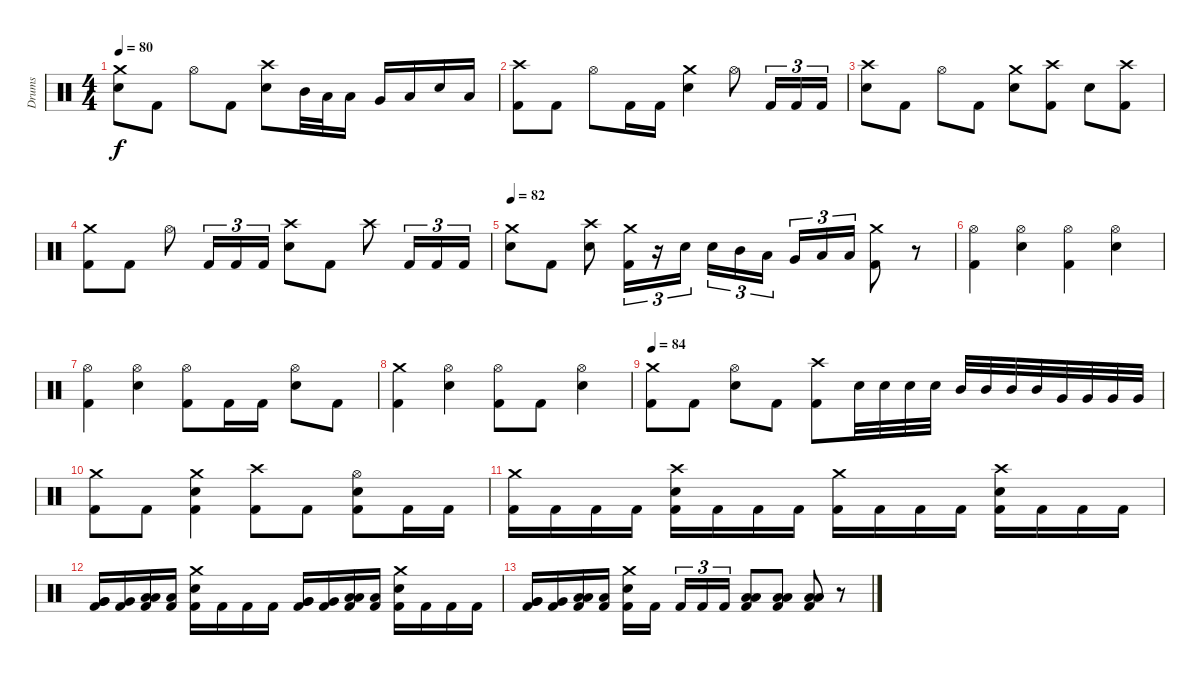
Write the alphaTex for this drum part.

\track ("Drums" "Drums") {instrument percussion}
\staff {score}
\articulation defaults
\ts (4 4)
\tempo 80
\clef neutral
\ks c
("Crash medium (hit)" "Electric Snare (hit)").8{dy f} "Kick (hit) 2".8 "Hi-Hat (open)".8 "Kick (hit) 2".8 ("Crash high (hit)" "Electric Snare (hit)").8 "Mid Tom (hit)".32 "Low Tom (hit)".32 "Low Tom (hit)".16 "Very Low Tom (hit)".16 "Low Floor Tom (hit)".16 "Electric Snare (hit)".16 "Low Floor Tom (hit)".16 |
("Crash high (hit)" "Kick (hit) 2").8 "Kick (hit) 2".8 "Hi-Hat (open)".8 "Kick (hit) 2".16 "Kick (hit) 2".16 ("Crash medium (hit)" "Electric Snare (hit)").4 "Hi-Hat (open)".8 "Kick (hit) 2".16{tu (3 2)} "Kick (hit) 2".16{tu (3 2)} "Kick (hit) 2".16{tu (3 2)} |
("Crash high (hit)" "Electric Snare (hit)").8 "Kick (hit) 2".8 "Hi-Hat (open)".8 "Kick (hit) 2".8 ("Crash medium (hit)" "Electric Snare (hit)").8 ("Crash high (hit)" "Kick (hit) 2").8 "Electric Snare (hit)".8 ("Crash high (hit)" "Kick (hit) 2").8 |
("Crash medium (hit)" "Kick (hit) 2").8 "Kick (hit) 2".8 "Hi-Hat (open)".8 "Kick (hit) 2".16{tu (3 2)} "Kick (hit) 2".16{tu (3 2)} "Kick (hit) 2".16{tu (3 2)} ("Crash high (hit)" "Electric Snare (hit)").8 "Kick (hit) 2".8 "Crash high (hit)".8 "Kick (hit) 2".16{tu (3 2)} "Kick (hit) 2".16{tu (3 2)} "Kick (hit) 2".16{tu (3 2)} |
\tempo 82
("Crash medium (hit)" "Electric Snare (hit)").8 "Kick (hit) 2".8 ("Crash high (hit)" "Electric Snare (hit)").8 ("Crash medium (hit)" "Kick (hit) 2").16{tu (3 2)} r.16{tu (3 2)} "Electric Snare (hit)".16{tu (3 2)} "Electric Snare (hit)".16{tu (3 2)} "Mid Tom (hit)".16{tu (3 2)} "Low Tom (hit)".16{tu (3 2) beam splitsecondary} "Very Low Tom (hit)".16{tu (3 2)} "Low Floor Tom (hit)".16{tu (3 2)} "Low Floor Tom (hit)".16{tu (3 2)} ("Crash medium (hit)" "Kick (hit) 2").8 r.8 |
("Hi-Hat (open)" "Kick (hit) 2").4 ("Hi-Hat (open)" "Electric Snare (hit)").4 ("Hi-Hat (open)" "Kick (hit) 2").4 ("Hi-Hat (open)" "Electric Snare (hit)").4 |
("Hi-Hat (open)" "Kick (hit) 2").4 ("Hi-Hat (open)" "Electric Snare (hit)").4 ("Hi-Hat (open)" "Kick (hit) 2").8 "Kick (hit) 2".16 "Kick (hit) 2".16 ("Hi-Hat (open)" "Electric Snare (hit)").8 "Kick (hit) 2".8 |
("Crash medium (hit)" "Kick (hit) 2").4 ("Hi-Hat (open)" "Electric Snare (hit)").4 ("Hi-Hat (open)" "Kick (hit) 2").8 "Kick (hit) 2".8 ("Hi-Hat (open)" "Electric Snare (hit)").4 |
\tempo 84
("Crash medium (hit)" "Kick (hit) 2").8 "Kick (hit) 2".8 ("Hi-Hat (open)" "Electric Snare (hit)").8 "Kick (hit) 2".8 ("Crash high (hit)" "Kick (hit) 2").8 "Electric Snare (hit)".32 "Electric Snare (hit)".32 "Electric Snare (hit)".32 "Electric Snare (hit)".32 "Mid Tom (hit)".32 "Mid Tom (hit)".32 "Mid Tom (hit)".32 "Mid Tom (hit)".32 "Very Low Tom (hit)".32 "Very Low Tom (hit)".32 "Very Low Tom (hit)".32 "Very Low Tom (hit)".32 |
("Crash medium (hit)" "Kick (hit) 2").8 "Kick (hit) 2".8 ("Crash medium (hit)" "Electric Snare (hit)" "Kick (hit) 2").4 ("Crash high (hit)" "Kick (hit) 2").8 "Kick (hit) 2".8 ("Hi-Hat (open)" "Electric Snare (hit)" "Kick (hit) 2").8 "Kick (hit) 2".16 "Kick (hit) 2".16 |
("Crash medium (hit)" "Kick (hit) 2").16 "Kick (hit) 2".16 "Kick (hit) 2".16 "Kick (hit) 2".16 ("Crash high (hit)" "Electric Snare (hit)" "Kick (hit) 2").16 "Kick (hit) 2".16 "Kick (hit) 2".16 "Kick (hit) 2".16 ("Crash medium (hit)" "Kick (hit) 2").16 "Kick (hit) 2".16 "Kick (hit) 2".16 "Kick (hit) 2".16 ("Crash high (hit)" "Electric Snare (hit)" "Kick (hit) 2").16 "Kick (hit) 2".16 "Kick (hit) 2".16 "Kick (hit) 2".16 |
("Very Low Tom (hit)" "Very Low Tom (hit)" "Kick (hit) 2").16 ("Very Low Tom (hit)" "Kick (hit) 2").16 ("Low Floor Tom (hit)" "Low Floor Tom (hit)" "Kick (hit) 2").16 ("Low Floor Tom (hit)" "Kick (hit) 2").16 ("Crash medium (hit)" "Electric Snare (hit)" "Kick (hit) 2").16 "Kick (hit) 2".16 "Kick (hit) 2".16 "Kick (hit) 2".16 ("Very Low Tom (hit)" "Very Low Tom (hit)" "Kick (hit) 2").16 ("Very Low Tom (hit)" "Kick (hit) 2").16 ("Low Floor Tom (hit)" "Low Floor Tom (hit)" "Kick (hit) 2").16 ("Low Floor Tom (hit)" "Kick (hit) 2").16 ("Crash medium (hit)" "Electric Snare (hit)" "Kick (hit) 2").16 "Kick (hit) 2".16 "Kick (hit) 2".16 "Kick (hit) 2".16 |
("Very Low Tom (hit)" "Very Low Tom (hit)" "Kick (hit) 2").16 ("Very Low Tom (hit)" "Kick (hit) 2").16 ("Low Floor Tom (hit)" "Low Floor Tom (hit)" "Kick (hit) 2").16 ("Low Floor Tom (hit)" "Kick (hit) 2").16 ("Crash medium (hit)" "Electric Snare (hit)" "Kick (hit) 2").16 "Kick (hit) 2".16{beam splitsecondary} "Kick (hit) 2".16{tu (3 2)} "Kick (hit) 2".16{tu (3 2)} "Kick (hit) 2".16{tu (3 2)} ("Low Tom (hit)" "Low Floor Tom (hit)" "Kick (hit) 2").8 ("Low Tom (hit)" "Low Floor Tom (hit)" "Kick (hit) 2").8 ("Low Tom (hit)" "Low Floor Tom (hit)" "Kick (hit) 2").8 r.8
